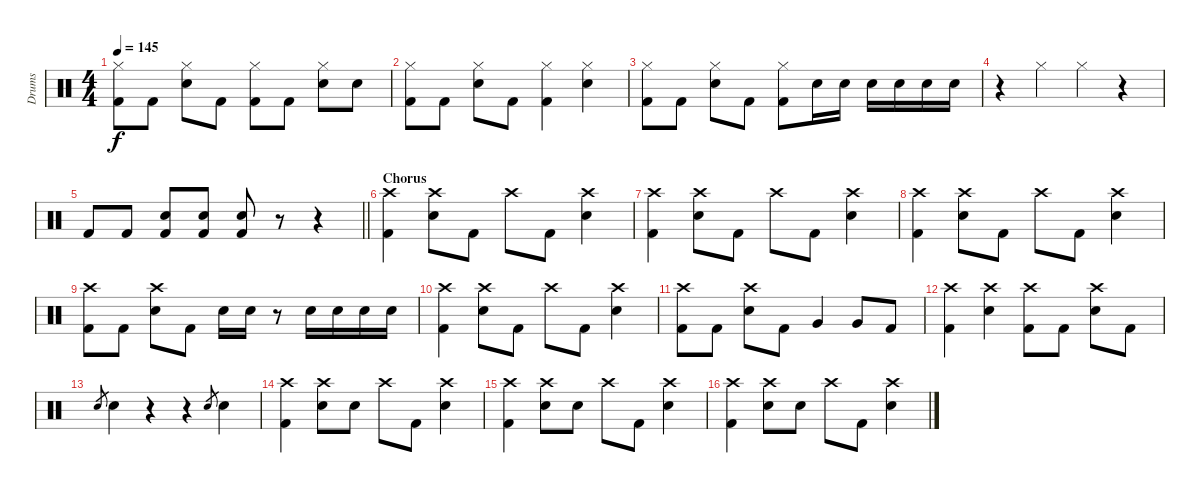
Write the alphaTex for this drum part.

\track ("Drums" "Drums") {instrument percussion}
\staff {score}
\articulation defaults
\ts (4 4)
\tempo 145
\clef neutral
\ks c
("Hi-Hat (closed)" "Kick (hit) 2").8{dy f} "Kick (hit) 2".8 ("Hi-Hat (closed)" "Electric Snare (hit)").8 "Kick (hit) 2".8 ("Hi-Hat (closed)" "Kick (hit) 2").8 "Kick (hit) 2".8 ("Hi-Hat (closed)" "Electric Snare (hit)").8 "Electric Snare (hit)".8 |
("Hi-Hat (closed)" "Kick (hit) 2").8 "Kick (hit) 2".8 ("Hi-Hat (closed)" "Electric Snare (hit)").8 "Kick (hit) 2".8 ("Hi-Hat (closed)" "Kick (hit) 2").4 ("Hi-Hat (closed)" "Electric Snare (hit)").4 |
("Hi-Hat (closed)" "Kick (hit) 2").8 "Kick (hit) 2".8 ("Hi-Hat (closed)" "Electric Snare (hit)").8 "Kick (hit) 2".8 ("Hi-Hat (closed)" "Kick (hit) 2").8 "Electric Snare (hit)".16 "Electric Snare (hit)".16 "Electric Snare (hit)".16 "Electric Snare (hit)".16 "Electric Snare (hit)".16 "Electric Snare (hit)".16 |
r.4 "Hi-Hat (closed)".4 "Hi-Hat (closed)".4 r.4 |
\barLineRight lightlight "Kick (hit) 2".8 "Kick (hit) 2".8
("Electric Snare (hit)" "Kick (hit) 2").8 ("Electric Snare (hit)" "Kick (hit) 2").8 ("Electric Snare (hit)" "Kick (hit) 2").8 r.8 r.4 |
\section ("" "Chorus")
("Crash high (hit)" "Kick (hit) 2").4 ("Crash high (hit)" "Electric Snare (hit)").8 "Kick (hit) 2".8 "Crash high (hit)".8 "Kick (hit) 2".8 ("Crash high (hit)" "Electric Snare (hit)").4 |
("Crash high (hit)" "Kick (hit) 2").4 ("Crash high (hit)" "Electric Snare (hit)").8 "Kick (hit) 2".8 "Crash high (hit)".8 "Kick (hit) 2".8 ("Crash high (hit)" "Electric Snare (hit)").4 |
("Crash high (hit)" "Kick (hit) 2").4 ("Crash high (hit)" "Electric Snare (hit)").8 "Kick (hit) 2".8 "Crash high (hit)".8 "Kick (hit) 2".8 ("Crash high (hit)" "Electric Snare (hit)").4 |
("Crash high (hit)" "Kick (hit) 2").8 "Kick (hit) 2".8 ("Crash high (hit)" "Electric Snare (hit)").8 "Kick (hit) 2".8 "Electric Snare (hit)".16 "Electric Snare (hit)".16 r.8 "Electric Snare (hit)".16 "Electric Snare (hit)".16 "Electric Snare (hit)".16 "Electric Snare (hit)".16 |
("Crash high (hit)" "Kick (hit) 2").4 ("Crash high (hit)" "Electric Snare (hit)").8 "Kick (hit) 2".8 "Crash high (hit)".8 "Kick (hit) 2".8 ("Crash high (hit)" "Electric Snare (hit)").4 |
("Crash high (hit)" "Kick (hit) 2").8 "Kick (hit) 2".8 ("Crash high (hit)" "Electric Snare (hit)").8 "Kick (hit) 2".8 "Very Low Tom (hit)".4 "Very Low Tom (hit)".8 "Kick (hit) 2".8 |
("Crash high (hit)" "Kick (hit) 2").4 ("Crash high (hit)" "Electric Snare (hit)").4 ("Crash high (hit)" "Kick (hit) 2").8 "Kick (hit) 2".8 ("Crash high (hit)" "Electric Snare (hit)").8 "Kick (hit) 2".8 |
"Electric Snare (hit)".8{gr} "Electric Snare (hit)".4 r.4 r.4 "Electric Snare (hit)".8{gr} "Electric Snare (hit)".4 |
("Crash high (hit)" "Kick (hit) 2").4 ("Crash high (hit)" "Electric Snare (hit)").8 "Electric Snare (hit)".8 "Crash high (hit)".8 "Kick (hit) 2".8 ("Crash high (hit)" "Electric Snare (hit)").4 |
("Crash high (hit)" "Kick (hit) 2").4 ("Crash high (hit)" "Electric Snare (hit)").8 "Electric Snare (hit)".8 "Crash high (hit)".8 "Kick (hit) 2".8 ("Crash high (hit)" "Electric Snare (hit)").4 |
("Crash high (hit)" "Kick (hit) 2").4 ("Crash high (hit)" "Electric Snare (hit)").8 "Electric Snare (hit)".8 "Crash high (hit)".8 "Kick (hit) 2".8 ("Crash high (hit)" "Electric Snare (hit)").4
